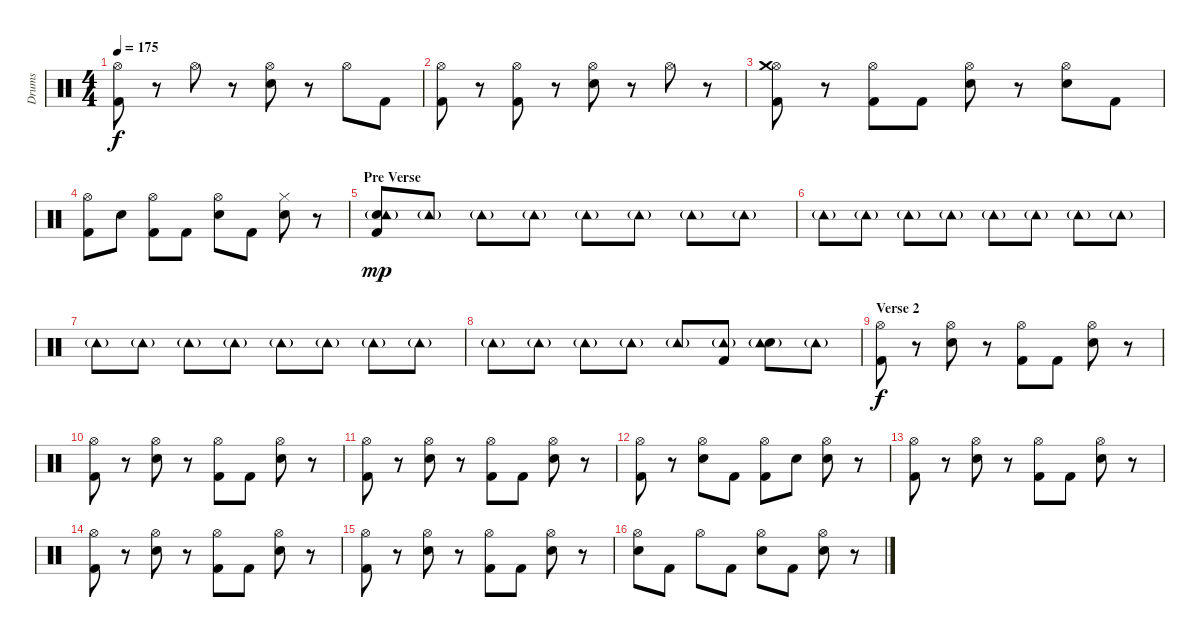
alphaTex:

\track ("Drums" "Drums") {instrument percussion}
\staff {score}
\articulation defaults
\ts (4 4)
\tempo 175
\clef neutral
\ks c
("Kick (hit) 2" "Hi-Hat (open)").8{dy f} r.8 "Hi-Hat (open)".8 r.8 ("Electric Snare (hit)" "Hi-Hat (open)").8 r.8 "Hi-Hat (open)".8 "Kick (hit) 2".8 |
("Kick (hit) 2" "Hi-Hat (open)").8 r.8 ("Kick (hit) 2" "Hi-Hat (open)").8 r.8 ("Electric Snare (hit)" "Hi-Hat (open)").8 r.8 "Hi-Hat (open)".8 r.8 |
("Kick (hit) 2" "Hi-Hat (open)" "Crash medium (hit)").8 r.8 ("Kick (hit) 2" "Hi-Hat (open)").8 "Kick (hit) 2".8 ("Electric Snare (hit)" "Hi-Hat (open)").8 r.8 ("Electric Snare (hit)" "Hi-Hat (open)").8 "Kick (hit) 2".8 |
("Kick (hit) 2" "Hi-Hat (open)").8 "Electric Snare (hit)".8 ("Kick (hit) 2" "Hi-Hat (open)").8 "Kick (hit) 2".8 ("Electric Snare (hit)" "Hi-Hat (open)").8 "Kick (hit) 2".8 ("Electric Snare (hit)" "Hi-Hat (closed)").8 r.8 |
\section ("" "Pre Verse")
("Kick (hit) 2" "Electric Snare (hit)" "Tambourine (hit)"{g}).8{dy mp} "Tambourine (hit)"{g}.8 "Tambourine (hit)"{g}.8 "Tambourine (hit)"{g}.8 "Tambourine (hit)"{g}.8 "Tambourine (hit)"{g}.8 "Tambourine (hit)"{g}.8 "Tambourine (hit)"{g}.8 |
"Tambourine (hit)"{g}.8 "Tambourine (hit)"{g}.8 "Tambourine (hit)"{g}.8 "Tambourine (hit)"{g}.8 "Tambourine (hit)"{g}.8 "Tambourine (hit)"{g}.8 "Tambourine (hit)"{g}.8 "Tambourine (hit)"{g}.8 |
"Tambourine (hit)"{g}.8 "Tambourine (hit)"{g}.8 "Tambourine (hit)"{g}.8 "Tambourine (hit)"{g}.8 "Tambourine (hit)"{g}.8 "Tambourine (hit)"{g}.8 "Tambourine (hit)"{g}.8 "Tambourine (hit)"{g}.8 |
"Tambourine (hit)"{g}.8 "Tambourine (hit)"{g}.8 "Tambourine (hit)"{g}.8 "Tambourine (hit)"{g}.8 "Tambourine (hit)"{g}.8 ("Kick (hit) 2" "Tambourine (hit)"{g}).8 ("Electric Snare (hit)" "Tambourine (hit)"{g}).8 "Tambourine (hit)"{g}.8 |
\section ("" "Verse 2")
("Kick (hit) 2" "Hi-Hat (open)").8{dy f} r.8 ("Electric Snare (hit)" "Hi-Hat (open)").8 r.8 ("Kick (hit) 2" "Hi-Hat (open)").8 "Kick (hit) 2".8 ("Electric Snare (hit)" "Hi-Hat (open)").8 r.8 |
("Kick (hit) 2" "Hi-Hat (open)").8 r.8 ("Electric Snare (hit)" "Hi-Hat (open)").8 r.8 ("Kick (hit) 2" "Hi-Hat (open)").8 "Kick (hit) 2".8 ("Electric Snare (hit)" "Hi-Hat (open)").8 r.8 |
("Kick (hit) 2" "Hi-Hat (open)").8 r.8 ("Electric Snare (hit)" "Hi-Hat (open)").8 r.8 ("Kick (hit) 2" "Hi-Hat (open)").8 "Kick (hit) 2".8 ("Electric Snare (hit)" "Hi-Hat (open)").8 r.8 |
("Kick (hit) 2" "Hi-Hat (open)").8 r.8 ("Electric Snare (hit)" "Hi-Hat (open)").8 "Kick (hit) 2".8 ("Kick (hit) 2" "Hi-Hat (open)").8 "Electric Snare (hit)".8 ("Electric Snare (hit)" "Hi-Hat (open)").8 r.8 |
("Kick (hit) 2" "Hi-Hat (open)").8 r.8 ("Electric Snare (hit)" "Hi-Hat (open)").8 r.8 ("Kick (hit) 2" "Hi-Hat (open)").8 "Kick (hit) 2".8 ("Electric Snare (hit)" "Hi-Hat (open)").8 r.8 |
("Kick (hit) 2" "Hi-Hat (open)").8 r.8 ("Electric Snare (hit)" "Hi-Hat (open)").8 r.8 ("Kick (hit) 2" "Hi-Hat (open)").8 "Kick (hit) 2".8 ("Electric Snare (hit)" "Hi-Hat (open)").8 r.8 |
("Kick (hit) 2" "Hi-Hat (open)").8 r.8 ("Electric Snare (hit)" "Hi-Hat (open)").8 r.8 ("Kick (hit) 2" "Hi-Hat (open)").8 "Kick (hit) 2".8 ("Electric Snare (hit)" "Hi-Hat (open)").8 r.8 |
("Electric Snare (hit)" "Hi-Hat (open)").8 "Kick (hit) 2".8 "Hi-Hat (open)".8 "Kick (hit) 2".8 ("Electric Snare (hit)" "Hi-Hat (open)").8 "Kick (hit) 2".8 ("Electric Snare (hit)" "Hi-Hat (open)").8 r.8
